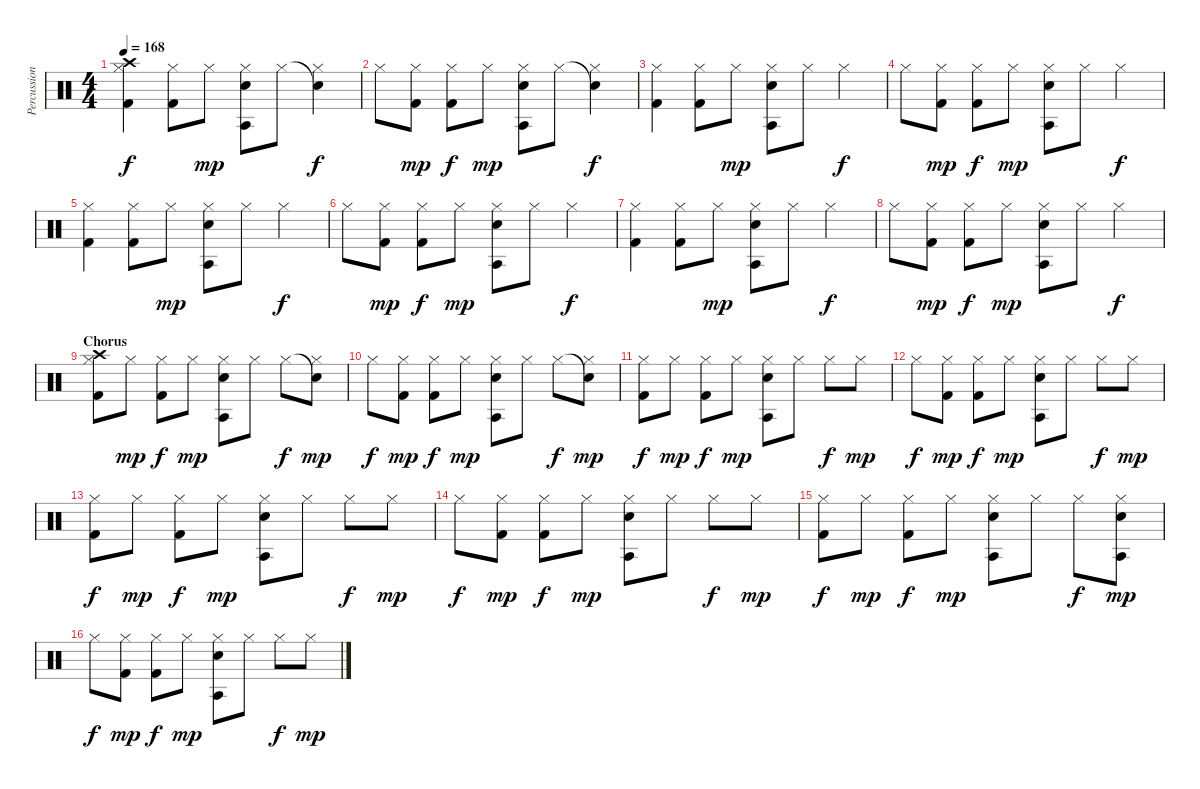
\track ("Percussion" "Percussion") {instrument percussion}
\staff {score}
\articulation defaults
\ts (4 4)
\tempo 168
\clef neutral
\ks c
("Crash high (hit)" "Hi-Hat (closed)" "Kick (hit) 2").4{dy f} ("Hi-Hat (closed)" "Kick (hit) 2").8 "Hi-Hat (closed)".8{dy mp} ("Hi-Hat (closed)" "Agogo tow (hit)" "Electric Snare (hit)").8 "Hi-Hat (closed)".8 ("Snare (hit)"{t} "Hi-Hat (closed)").4{dy f} |
"Hi-Hat (closed)".8 ("Hi-Hat (closed)" "Kick (hit) 2").8{dy mp} ("Hi-Hat (closed)" "Kick (hit) 2").8{dy f} "Hi-Hat (closed)".8{dy mp} ("Hi-Hat (closed)" "Agogo tow (hit)" "Electric Snare (hit)").8 "Hi-Hat (closed)".8 ("Snare (hit)"{t} "Hi-Hat (closed)").4{dy f} |
("Hi-Hat (closed)" "Kick (hit) 2").4 ("Hi-Hat (closed)" "Kick (hit) 2").8 "Hi-Hat (closed)".8{dy mp} ("Hi-Hat (closed)" "Agogo tow (hit)" "Electric Snare (hit)").8 "Hi-Hat (closed)".8 "Hi-Hat (closed)".4{dy f} |
"Hi-Hat (closed)".8 ("Hi-Hat (closed)" "Kick (hit) 2").8{dy mp} ("Hi-Hat (closed)" "Kick (hit) 2").8{dy f} "Hi-Hat (closed)".8{dy mp} ("Hi-Hat (closed)" "Agogo tow (hit)" "Electric Snare (hit)").8 "Hi-Hat (closed)".8 "Hi-Hat (closed)".4{dy f} |
("Hi-Hat (closed)" "Kick (hit) 2").4 ("Hi-Hat (closed)" "Kick (hit) 2").8 "Hi-Hat (closed)".8{dy mp} ("Hi-Hat (closed)" "Agogo tow (hit)" "Electric Snare (hit)").8 "Hi-Hat (closed)".8 "Hi-Hat (closed)".4{dy f} |
"Hi-Hat (closed)".8 ("Hi-Hat (closed)" "Kick (hit) 2").8{dy mp} ("Hi-Hat (closed)" "Kick (hit) 2").8{dy f} "Hi-Hat (closed)".8{dy mp} ("Hi-Hat (closed)" "Agogo tow (hit)" "Electric Snare (hit)").8 "Hi-Hat (closed)".8 "Hi-Hat (closed)".4{dy f} |
("Hi-Hat (closed)" "Kick (hit) 2").4 ("Hi-Hat (closed)" "Kick (hit) 2").8 "Hi-Hat (closed)".8{dy mp} ("Hi-Hat (closed)" "Agogo tow (hit)" "Electric Snare (hit)").8 "Hi-Hat (closed)".8 "Hi-Hat (closed)".4{dy f} |
"Hi-Hat (closed)".8 ("Hi-Hat (closed)" "Kick (hit) 2").8{dy mp} ("Hi-Hat (closed)" "Kick (hit) 2").8{dy f} "Hi-Hat (closed)".8{dy mp} ("Hi-Hat (closed)" "Agogo tow (hit)" "Electric Snare (hit)").8 "Hi-Hat (closed)".8 "Hi-Hat (closed)".4{dy f} |
\section ("" "Chorus")
("Crash high (hit)" "Hi-Hat (closed)" "Kick (hit) 2").8 "Hi-Hat (closed)".8{dy mp} ("Hi-Hat (closed)" "Kick (hit) 2").8{dy f} "Hi-Hat (closed)".8{dy mp} ("Hi-Hat (closed)" "Agogo tow (hit)" "Electric Snare (hit)").8 "Hi-Hat (closed)".8 "Hi-Hat (closed)".8{dy f} ("Snare (hit)"{t} "Hi-Hat (closed)").8{dy mp} |
"Hi-Hat (closed)".8{dy f} ("Hi-Hat (closed)" "Kick (hit) 2").8{dy mp} ("Hi-Hat (closed)" "Kick (hit) 2").8{dy f} "Hi-Hat (closed)".8{dy mp} ("Hi-Hat (closed)" "Agogo tow (hit)" "Electric Snare (hit)").8 "Hi-Hat (closed)".8 "Hi-Hat (closed)".8{dy f} ("Snare (hit)"{t} "Hi-Hat (closed)").8{dy mp} |
("Hi-Hat (closed)" "Kick (hit) 2").8{dy f} "Hi-Hat (closed)".8{dy mp} ("Hi-Hat (closed)" "Kick (hit) 2").8{dy f} "Hi-Hat (closed)".8{dy mp} ("Hi-Hat (closed)" "Agogo tow (hit)" "Electric Snare (hit)").8 "Hi-Hat (closed)".8 "Hi-Hat (closed)".8{dy f} "Hi-Hat (closed)".8{dy mp} |
"Hi-Hat (closed)".8{dy f} ("Hi-Hat (closed)" "Kick (hit) 2").8{dy mp} ("Hi-Hat (closed)" "Kick (hit) 2").8{dy f} "Hi-Hat (closed)".8{dy mp} ("Hi-Hat (closed)" "Agogo tow (hit)" "Electric Snare (hit)").8 "Hi-Hat (closed)".8 "Hi-Hat (closed)".8{dy f} "Hi-Hat (closed)".8{dy mp} |
("Hi-Hat (closed)" "Kick (hit) 2").8{dy f} "Hi-Hat (closed)".8{dy mp} ("Hi-Hat (closed)" "Kick (hit) 2").8{dy f} "Hi-Hat (closed)".8{dy mp} ("Hi-Hat (closed)" "Agogo tow (hit)" "Electric Snare (hit)").8 "Hi-Hat (closed)".8 "Hi-Hat (closed)".8{dy f} "Hi-Hat (closed)".8{dy mp} |
"Hi-Hat (closed)".8{dy f} ("Hi-Hat (closed)" "Kick (hit) 2").8{dy mp} ("Hi-Hat (closed)" "Kick (hit) 2").8{dy f} "Hi-Hat (closed)".8{dy mp} ("Hi-Hat (closed)" "Agogo tow (hit)" "Electric Snare (hit)").8 "Hi-Hat (closed)".8 "Hi-Hat (closed)".8{dy f} "Hi-Hat (closed)".8{dy mp} |
("Hi-Hat (closed)" "Kick (hit) 2").8{dy f} "Hi-Hat (closed)".8{dy mp} ("Hi-Hat (closed)" "Kick (hit) 2").8{dy f} "Hi-Hat (closed)".8{dy mp} ("Hi-Hat (closed)" "Agogo tow (hit)" "Electric Snare (hit)").8 "Hi-Hat (closed)".8 "Hi-Hat (closed)".8{dy f} ("Hi-Hat (closed)" "Agogo tow (hit)" "Electric Snare (hit)").8{dy mp} |
"Hi-Hat (closed)".8{dy f} ("Hi-Hat (closed)" "Kick (hit) 2").8{dy mp} ("Hi-Hat (closed)" "Kick (hit) 2").8{dy f} "Hi-Hat (closed)".8{dy mp} ("Hi-Hat (closed)" "Agogo tow (hit)" "Electric Snare (hit)").8 "Hi-Hat (closed)".8 "Hi-Hat (closed)".8{dy f} "Hi-Hat (closed)".8{dy mp}
